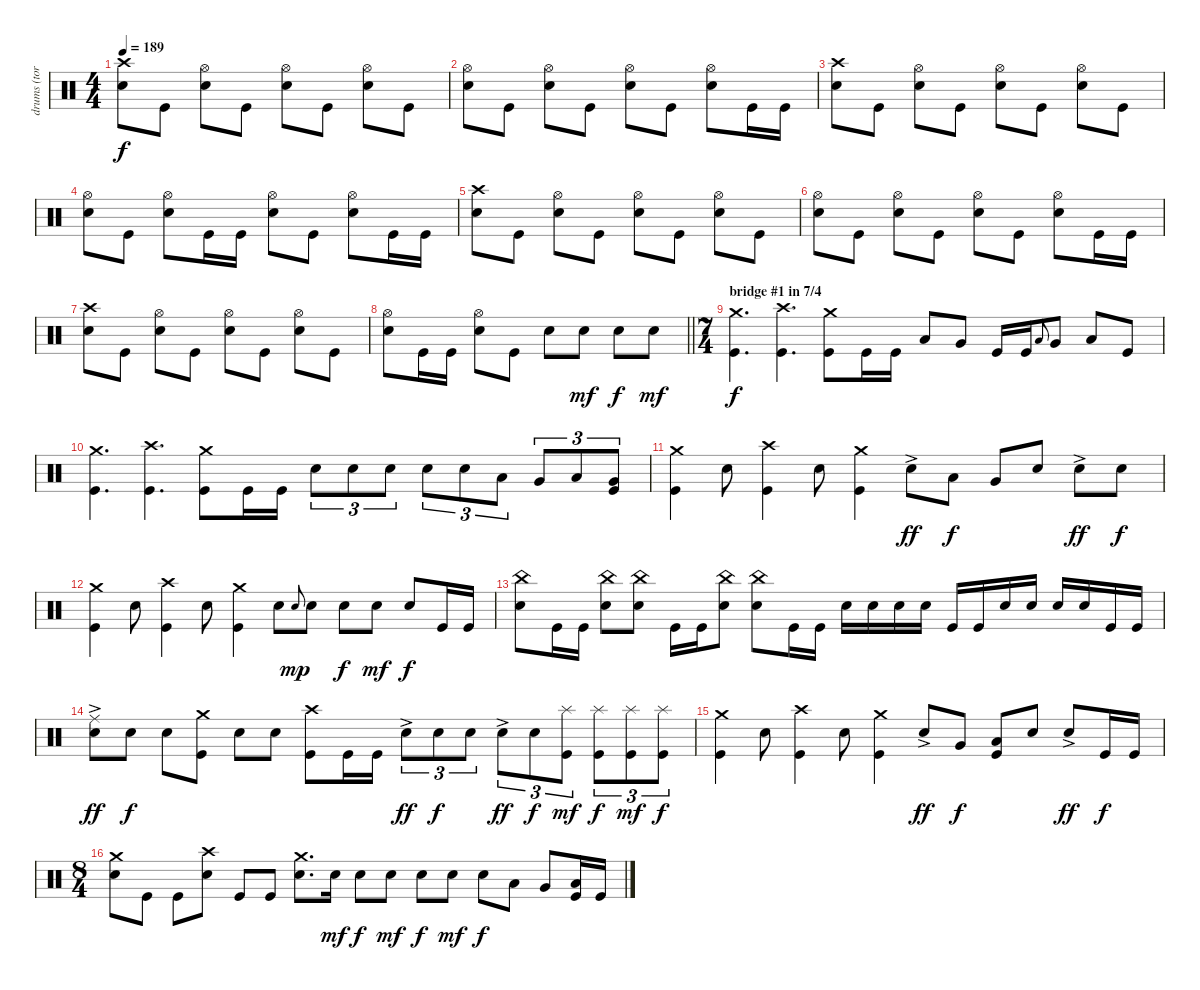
\track ("drums (tora)" "drums (tor") {instrument percussion}
\staff {score}
\articulation defaults
\ts (4 4)
\tempo 189
\clef neutral
\ks c
("Crash high (hit)" "Snare (hit) 2").8{dy f} "Kick (hit)".8 ("Hi-Hat (open)" "Snare (hit) 2").8 "Kick (hit)".8 ("Hi-Hat (open)" "Snare (hit) 2").8 "Kick (hit)".8 ("Hi-Hat (open)" "Snare (hit) 2").8 "Kick (hit)".8 |
("Hi-Hat (open)" "Snare (hit) 2").8 "Kick (hit)".8 ("Hi-Hat (open)" "Snare (hit) 2").8 "Kick (hit)".8 ("Hi-Hat (open)" "Snare (hit) 2").8 "Kick (hit)".8 ("Hi-Hat (open)" "Snare (hit) 2").8 "Kick (hit)".16 "Kick (hit)".16 |
("Crash high (hit)" "Snare (hit) 2").8 "Kick (hit)".8 ("Hi-Hat (open)" "Snare (hit) 2").8 "Kick (hit)".8 ("Hi-Hat (open)" "Snare (hit) 2").8 "Kick (hit)".8 ("Hi-Hat (open)" "Snare (hit) 2").8 "Kick (hit)".8 |
("Hi-Hat (open)" "Snare (hit) 2").8 "Kick (hit)".8 ("Hi-Hat (open)" "Snare (hit) 2").8 "Kick (hit)".16 "Kick (hit)".16 ("Hi-Hat (open)" "Snare (hit) 2").8 "Kick (hit)".8 ("Hi-Hat (open)" "Snare (hit) 2").8 "Kick (hit)".16 "Kick (hit)".16 |
("Crash high (hit)" "Snare (hit) 2").8 "Kick (hit)".8 ("Hi-Hat (open)" "Snare (hit) 2").8 "Kick (hit)".8 ("Hi-Hat (open)" "Snare (hit) 2").8 "Kick (hit)".8 ("Hi-Hat (open)" "Snare (hit) 2").8 "Kick (hit)".8 |
("Hi-Hat (open)" "Snare (hit) 2").8 "Kick (hit)".8 ("Hi-Hat (open)" "Snare (hit) 2").8 "Kick (hit)".8 ("Hi-Hat (open)" "Snare (hit) 2").8 "Kick (hit)".8 ("Hi-Hat (open)" "Snare (hit) 2").8 "Kick (hit)".16 "Kick (hit)".16 |
("Crash high (hit)" "Snare (hit) 2").8 "Kick (hit)".8 ("Hi-Hat (open)" "Snare (hit) 2").8 "Kick (hit)".8 ("Hi-Hat (open)" "Snare (hit) 2").8 "Kick (hit)".8 ("Hi-Hat (open)" "Snare (hit) 2").8 "Kick (hit)".8 |
\barLineRight lightlight
("Hi-Hat (open)" "Snare (hit) 2").8 "Kick (hit)".16 "Kick (hit)".16 ("Hi-Hat (open)" "Snare (hit) 2").8 "Kick (hit)".8 "Snare (hit) 2".8 "Snare (hit) 2".8{dy mf} "Snare (hit) 2".8{dy f} "Snare (hit) 2".8{dy mf} |
\ts (7 4)
\section ("" "bridge #1 in 7/4")
("Crash medium (hit)" "Kick (hit)").4{d dy f} ("Crash high (hit)" "Kick (hit)").4{d} ("Crash medium (hit)" "Kick (hit)").8 "Kick (hit)".16 "Kick (hit)".16 "Low Tom (hit)".8 "Very Low Tom (hit)".8 "Kick (hit)".16 "Kick (hit)".16 "Low Tom (hit)".8{gr onbeat} "Very Low Tom (hit)".8 "Low Floor Tom (hit)".8 "Kick (hit)".8 |
("Crash medium (hit)" "Kick (hit)").4{d} ("Crash high (hit)" "Kick (hit)").4{d} ("Crash medium (hit)" "Kick (hit)").8 "Kick (hit)".16 "Kick (hit)".16 "Snare (hit) 2".8{tu (3 2)} "Snare (hit) 2".8{tu (3 2)} "Snare (hit) 2".8{tu (3 2)} "Snare (hit) 2".8{tu (3 2)} "Snare (hit) 2".8{tu (3 2)} "Low Tom (hit)".8{tu (3 2)} "Very Low Tom (hit)".8{tu (3 2)} "Low Floor Tom (hit)".8{tu (3 2)} ("Very Low Tom (hit)" "Kick (hit)").8{tu (3 2)} |
("Crash medium (hit)" "Kick (hit)").4 "Snare (hit) 2".8 ("Crash high (hit)" "Kick (hit)").4 "Snare (hit) 2".8 ("Crash medium (hit)" "Kick (hit)").4 "Snare (hit) 2"{ac}.8{dy ff} "Low Tom (hit)".8{dy f} "Very Low Tom (hit)".8 "Snare (hit) 2".8 "Snare (hit) 2"{ac}.8{dy ff} "Snare (hit) 2".8{dy f} |
("Crash medium (hit)" "Kick (hit)").4 "Snare (hit) 2".8 ("Crash high (hit)" "Kick (hit)").4 "Snare (hit) 2".8 ("Crash medium (hit)" "Kick (hit)").4 "Snare (hit) 2".8 "Snare (hit) 2".8{gr onbeat dy mp} "Snare (hit) 2".8 "Snare (hit) 2".8{dy f} "Snare (hit) 2".8{dy mf} "Snare (hit) 2".8{dy f} "Kick (hit)".16 "Kick (hit)".16 |
("China (hit)" "Snare (hit) 2").8 "Kick (hit)".16 "Kick (hit)".16 ("China (hit)" "Snare (hit) 2").8 ("China (hit)" "Snare (hit) 2").8 "Kick (hit)".16 "Kick (hit)".16 ("China (hit)" "Snare (hit) 2").8 ("China (hit)" "Snare (hit) 2").8 "Kick (hit)".16 "Kick (hit)".16 "Snare (hit) 2".16 "Snare (hit) 2".16 "Snare (hit) 2".16 "Snare (hit) 2".16 "Kick (hit)".16 "Kick (hit)".16 "Snare (hit) 2".16 "Snare (hit) 2".16 "Snare (hit) 2".16 "Snare (hit) 2".16 "Kick (hit)".16 "Kick (hit)".16 |
("Ride (middle)"{ac} "Snare (hit) 2"{ac}).8{dy ff} "Snare (hit) 2".8{dy f} "Snare (hit) 2".8 ("Crash medium (hit)" "Kick (hit)").8 "Snare (hit) 2".8 "Snare (hit) 2".8 ("Crash high (hit)" "Kick (hit)").8 "Kick (hit)".16 "Kick (hit)".16 "Snare (hit) 2"{ac}.8{tu (3 2) dy ff} "Snare (hit) 2".8{tu (3 2) dy f} "Snare (hit) 2".8{tu (3 2)} "Snare (hit) 2"{ac}.8{tu (3 2) dy ff} "Snare (hit) 2".8{tu (3 2) dy f} ("Splash (hit)" "Kick (hit)").8{tu (3 2) dy mf} ("Splash (hit)" "Kick (hit)").8{tu (3 2) dy f} ("Splash (hit)" "Kick (hit)").8{tu (3 2) dy mf} ("Splash (hit)" "Kick (hit)").8{tu (3 2) dy f} |
("Crash medium (hit)" "Kick (hit)").4 "Snare (hit) 2".8 ("Crash high (hit)" "Kick (hit)").4 "Snare (hit) 2".8 ("Crash medium (hit)" "Kick (hit)").4 "Snare (hit) 2"{ac}.8{dy ff} "Very Low Tom (hit)".8{dy f} ("Low Floor Tom (hit)" "Kick (hit)").8 "Snare (hit) 2".8 "Snare (hit) 2"{ac}.8{dy ff} "Kick (hit)".16{dy f} "Kick (hit)".16 |
\ts (8 4)
("Crash medium (hit)" "Snare (hit) 2").8 "Kick (hit)".8 "Kick (hit)".8 ("Crash high (hit)" "Snare (hit) 2").8 "Kick (hit)".8 "Kick (hit)".8 ("Crash medium (hit)" "Snare (hit) 2").8{d} "Snare (hit) 2".16{dy mf} "Snare (hit) 2".8{dy f} "Snare (hit) 2".8{dy mf} "Snare (hit) 2".8{dy f} "Snare (hit) 2".8{dy mf} "Snare (hit) 2".8{dy f} "Low Tom (hit)".8 "Very Low Tom (hit)".8 ("Low Floor Tom (hit)" "Kick (hit)").16 "Kick (hit)".16
